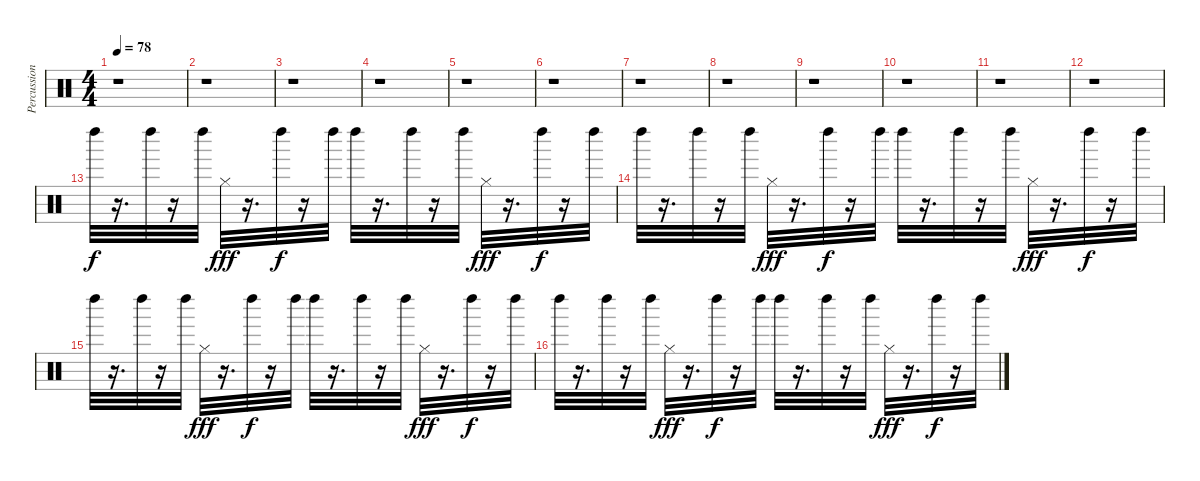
\track ("Percussion" "Percussion") {instrument percussion}
\staff {score}
\articulation defaults
\ts (4 4)
\tempo 78
\clef neutral
\ks c
r.1{dy f} |
r.1 |
r.1 |
r.1 |
r.1 |
r.1 |
r.1 |
r.1 |
r.1 |
r.1 |
r.1 |
r.1 |
"Left Maraca (hit)".32 r.16{d} "Left Maraca (hit)".32 r.16 "Left Maraca (hit)".32 "Hi-Hat (closed)".32{dy fff} r.16{d} "Left Maraca (hit)".32{dy f} r.16 "Left Maraca (hit)".32 "Left Maraca (hit)".32 r.16{d} "Left Maraca (hit)".32 r.16 "Left Maraca (hit)".32 "Hi-Hat (closed)".32{dy fff} r.16{d} "Left Maraca (hit)".32{dy f} r.16 "Left Maraca (hit)".32 |
"Left Maraca (hit)".32 r.16{d} "Left Maraca (hit)".32 r.16 "Left Maraca (hit)".32 "Hi-Hat (closed)".32{dy fff} r.16{d} "Left Maraca (hit)".32{dy f} r.16 "Left Maraca (hit)".32 "Left Maraca (hit)".32 r.16{d} "Left Maraca (hit)".32 r.16 "Left Maraca (hit)".32 "Hi-Hat (closed)".32{dy fff} r.16{d} "Left Maraca (hit)".32{dy f} r.16 "Left Maraca (hit)".32 |
"Left Maraca (hit)".32 r.16{d} "Left Maraca (hit)".32 r.16 "Left Maraca (hit)".32 "Hi-Hat (closed)".32{dy fff} r.16{d} "Left Maraca (hit)".32{dy f} r.16 "Left Maraca (hit)".32 "Left Maraca (hit)".32 r.16{d} "Left Maraca (hit)".32 r.16 "Left Maraca (hit)".32 "Hi-Hat (closed)".32{dy fff} r.16{d} "Left Maraca (hit)".32{dy f} r.16 "Left Maraca (hit)".32 |
"Left Maraca (hit)".32 r.16{d} "Left Maraca (hit)".32 r.16 "Left Maraca (hit)".32 "Hi-Hat (closed)".32{dy fff} r.16{d} "Left Maraca (hit)".32{dy f} r.16 "Left Maraca (hit)".32 "Left Maraca (hit)".32 r.16{d} "Left Maraca (hit)".32 r.16 "Left Maraca (hit)".32 "Hi-Hat (closed)".32{dy fff} r.16{d} "Left Maraca (hit)".32{dy f} r.16 "Left Maraca (hit)".32
